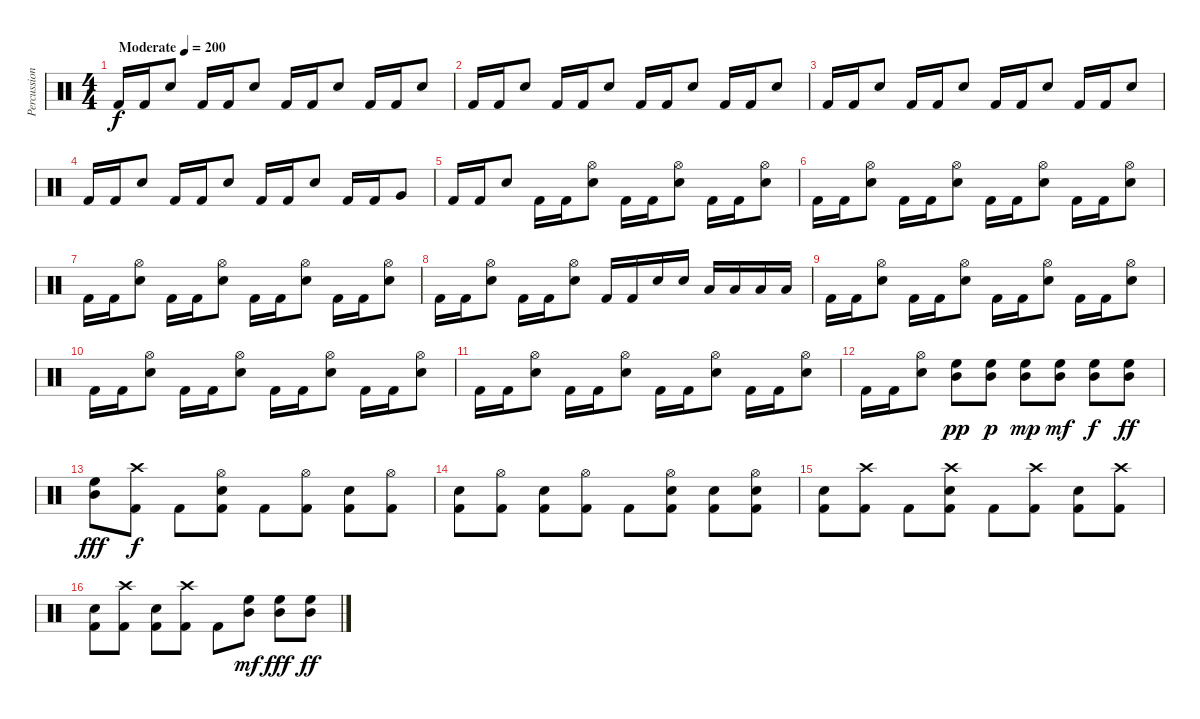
\track ("Percussion" "Percussion") {instrument percussion}
\staff {score}
\articulation defaults
\ts (4 4)
\tempo (200 "Moderate")
\clef neutral
\ks c "Kick (hit) 2".16{dy f} "Kick (hit) 2".16 "Snare (hit) 2".8 "Kick (hit) 2".16 "Kick (hit) 2".16 "Snare (hit) 2".8 "Kick (hit) 2".16 "Kick (hit) 2".16 "Snare (hit) 2".8 "Kick (hit) 2".16 "Kick (hit) 2".16 "Snare (hit) 2".8
|
"Kick (hit) 2".16 "Kick (hit) 2".16 "Snare (hit) 2".8 "Kick (hit) 2".16 "Kick (hit) 2".16 "Snare (hit) 2".8 "Kick (hit) 2".16 "Kick (hit) 2".16 "Snare (hit) 2".8 "Kick (hit) 2".16 "Kick (hit) 2".16 "Snare (hit) 2".8 |
"Kick (hit) 2".16 "Kick (hit) 2".16 "Snare (hit) 2".8 "Kick (hit) 2".16 "Kick (hit) 2".16 "Snare (hit) 2".8 "Kick (hit) 2".16 "Kick (hit) 2".16 "Snare (hit) 2".8 "Kick (hit) 2".16 "Kick (hit) 2".16 "Snare (hit) 2".8 |
"Kick (hit) 2".16 "Kick (hit) 2".16 "Snare (hit) 2".8 "Kick (hit) 2".16 "Kick (hit) 2".16 "Snare (hit) 2".8 "Kick (hit) 2".16 "Kick (hit) 2".16 "Snare (hit) 2".8 "Kick (hit) 2".16 "Kick (hit) 2".16 "Very Low Tom (hit)".8 |
"Kick (hit) 2".16 "Kick (hit) 2".16 "Snare (hit) 2".8 "Kick (hit) 2".16 "Kick (hit) 2".16 ("Hi-Hat (open)" "Snare (hit) 2").8 "Kick (hit) 2".16 "Kick (hit) 2".16 ("Hi-Hat (open)" "Snare (hit) 2").8 "Kick (hit) 2".16 "Kick (hit) 2".16 ("Hi-Hat (open)" "Snare (hit) 2").8 |
"Kick (hit) 2".16 "Kick (hit) 2".16 ("Hi-Hat (open)" "Snare (hit) 2").8 "Kick (hit) 2".16 "Kick (hit) 2".16 ("Hi-Hat (open)" "Snare (hit) 2").8 "Kick (hit) 2".16 "Kick (hit) 2".16 ("Hi-Hat (open)" "Snare (hit) 2").8 "Kick (hit) 2".16 "Kick (hit) 2".16 ("Hi-Hat (open)" "Snare (hit) 2").8 |
"Kick (hit) 2".16 "Kick (hit) 2".16 ("Hi-Hat (open)" "Snare (hit) 2").8 "Kick (hit) 2".16 "Kick (hit) 2".16 ("Hi-Hat (open)" "Snare (hit) 2").8 "Kick (hit) 2".16 "Kick (hit) 2".16 ("Hi-Hat (open)" "Snare (hit) 2").8 "Kick (hit) 2".16 "Kick (hit) 2".16 ("Hi-Hat (open)" "Snare (hit) 2").8 |
"Kick (hit) 2".16 "Kick (hit) 2".16 ("Hi-Hat (open)" "Snare (hit) 2").8 "Kick (hit) 2".16 "Kick (hit) 2".16 ("Hi-Hat (open)" "Snare (hit) 2").8 "Kick (hit) 2".16 "Kick (hit) 2".16 "Snare (hit) 2".16 "Snare (hit) 2".16 "Low Floor Tom (hit)".16 "Low Floor Tom (hit)".16 "Low Floor Tom (hit)".16 "Low Floor Tom (hit)".16 |
"Kick (hit) 2".16 "Kick (hit) 2".16 ("Hi-Hat (open)" "Snare (hit) 2").8 "Kick (hit) 2".16 "Kick (hit) 2".16 ("Hi-Hat (open)" "Snare (hit) 2").8 "Kick (hit) 2".16 "Kick (hit) 2".16 ("Hi-Hat (open)" "Snare (hit) 2").8 "Kick (hit) 2".16 "Kick (hit) 2".16 ("Hi-Hat (open)" "Snare (hit) 2").8 |
"Kick (hit) 2".16 "Kick (hit) 2".16 ("Hi-Hat (open)" "Snare (hit) 2").8 "Kick (hit) 2".16 "Kick (hit) 2".16 ("Hi-Hat (open)" "Snare (hit) 2").8 "Kick (hit) 2".16 "Kick (hit) 2".16 ("Hi-Hat (open)" "Snare (hit) 2").8 "Kick (hit) 2".16 "Kick (hit) 2".16 ("Hi-Hat (open)" "Snare (hit) 2").8 |
"Kick (hit) 2".16 "Kick (hit) 2".16 ("Hi-Hat (open)" "Snare (hit) 2").8 "Kick (hit) 2".16 "Kick (hit) 2".16 ("Hi-Hat (open)" "Snare (hit) 2").8 "Kick (hit) 2".16 "Kick (hit) 2".16 ("Hi-Hat (open)" "Snare (hit) 2").8 "Kick (hit) 2".16 "Kick (hit) 2".16 ("Hi-Hat (open)" "Snare (hit) 2").8 |
"Kick (hit) 2".16 "Kick (hit) 2".16 ("Hi-Hat (open)" "Snare (hit) 2").8 ("Mid Tom (hit)" "High Floor Tom (hit)").8{dy pp} ("Mid Tom (hit)" "High Floor Tom (hit)").8{dy p} ("Mid Tom (hit)" "High Floor Tom (hit)").8{dy mp} ("Mid Tom (hit)" "High Floor Tom (hit)").8{dy mf} ("Mid Tom (hit)" "High Floor Tom (hit)").8{dy f} ("Mid Tom (hit)" "High Floor Tom (hit)").8{dy ff} |
("Mid Tom (hit)" "High Floor Tom (hit)").8{dy fff} ("Crash high (hit)" "Kick (hit) 2").8{dy f} "Kick (hit) 2".8 ("Hi-Hat (open)" "Snare (hit) 2" "Kick (hit) 2").8 "Kick (hit) 2".8 ("Hi-Hat (open)" "Kick (hit) 2").8 ("Snare (hit) 2" "Kick (hit) 2").8 ("Hi-Hat (open)" "Kick (hit) 2").8 |
("Snare (hit) 2" "Kick (hit) 2").8 ("Hi-Hat (open)" "Kick (hit) 2").8 ("Snare (hit) 2" "Kick (hit) 2").8 ("Hi-Hat (open)" "Kick (hit) 2").8 "Kick (hit) 2".8 ("Hi-Hat (open)" "Snare (hit) 2" "Kick (hit) 2").8 ("Snare (hit) 2" "Kick (hit) 2").8 ("Hi-Hat (open)" "Snare (hit) 2" "Kick (hit) 2").8 |
("Snare (hit) 2" "Kick (hit) 2").8 ("Crash high (hit)" "Kick (hit) 2").8 "Kick (hit) 2".8 ("Crash high (hit)" "Snare (hit) 2" "Kick (hit) 2").8 "Kick (hit) 2".8 ("Crash high (hit)" "Kick (hit) 2").8 ("Snare (hit) 2" "Kick (hit) 2").8 ("Crash high (hit)" "Kick (hit) 2").8 |
("Snare (hit) 2" "Kick (hit) 2").8 ("Crash high (hit)" "Kick (hit) 2").8 ("Snare (hit) 2" "Kick (hit) 2").8 ("Crash high (hit)" "Kick (hit) 2").8 "Kick (hit) 2".8 ("Mid Tom (hit)" "High Floor Tom (hit)").8{dy mf} ("Mid Tom (hit)" "High Floor Tom (hit)").8{dy fff} ("Mid Tom (hit)" "High Floor Tom (hit)").8{dy ff}
